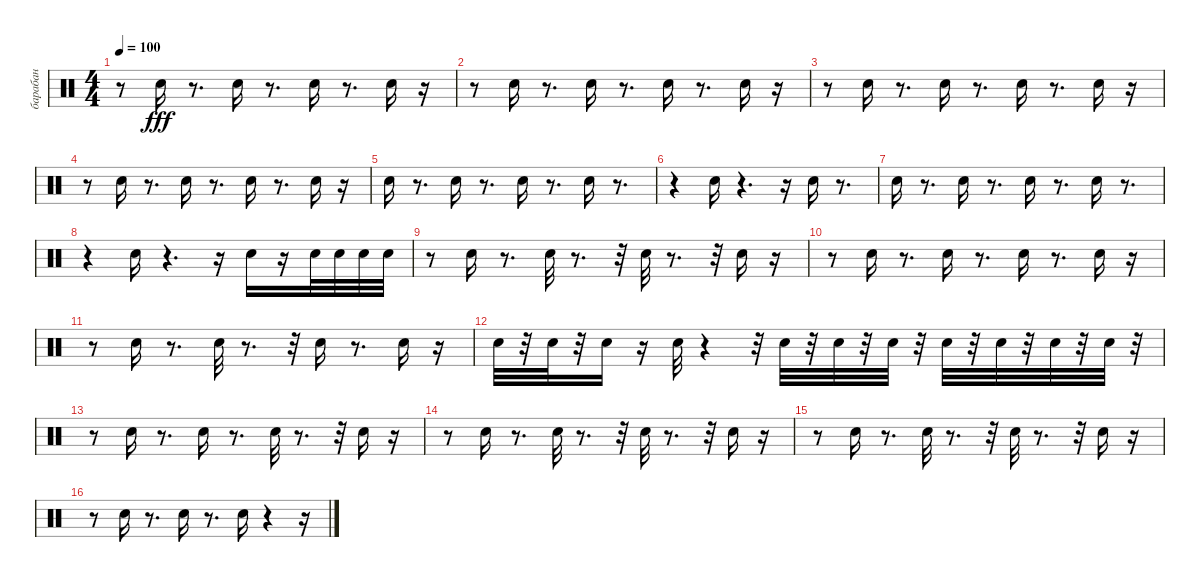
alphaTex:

\track ("барабан" "барабан") {instrument percussion}
\staff {score}
\articulation defaults
\ts (4 4)
\tempo 100
\clef neutral
\ks c
r.8{dy fff} "Snare (hit) 2".16 r.8{d} "Snare (hit) 2".16 r.8{d} "Snare (hit) 2".16 r.8{d} "Snare (hit) 2".16 r.16 |
r.8 "Snare (hit) 2".16 r.8{d} "Snare (hit) 2".16 r.8{d} "Snare (hit) 2".16 r.8{d} "Snare (hit) 2".16 r.16 |
r.8 "Snare (hit) 2".16 r.8{d} "Snare (hit) 2".16 r.8{d} "Snare (hit) 2".16 r.8{d} "Snare (hit) 2".16 r.16 |
r.8 "Snare (hit) 2".16 r.8{d} "Snare (hit) 2".16 r.8{d} "Snare (hit) 2".16 r.8{d} "Snare (hit) 2".16 r.16 |
"Snare (hit) 2".16 r.8{d} "Snare (hit) 2".16 r.8{d} "Snare (hit) 2".16 r.8{d} "Snare (hit) 2".16 r.8{d} |
r.4 "Snare (hit) 2".16 r.4{d} r.16 "Snare (hit) 2".16 r.8{d} |
"Snare (hit) 2".16 r.8{d} "Snare (hit) 2".16 r.8{d} "Snare (hit) 2".16 r.8{d} "Snare (hit) 2".16 r.8{d} |
r.4 "Snare (hit) 2".16 r.4{d} r.16 "Snare (hit) 2".16 r.16 "Snare (hit) 2".32 "Snare (hit) 2".32 "Snare (hit) 2".32 "Snare (hit) 2".32 |
r.8 "Snare (hit) 2".16 r.8{d} "Snare (hit) 2".32 r.8{d} r.32 "Snare (hit) 2".32 r.8{d} r.32 "Snare (hit) 2".16 r.16 |
r.8 "Snare (hit) 2".16 r.8{d} "Snare (hit) 2".16 r.8{d} "Snare (hit) 2".16 r.8{d} "Snare (hit) 2".16 r.16 |
r.8 "Snare (hit) 2".16 r.8{d} "Snare (hit) 2".32 r.8{d} r.32 "Snare (hit) 2".16 r.8{d} "Snare (hit) 2".16 r.16 |
"Snare (hit) 2".32 r.32 "Snare (hit) 2".32 r.32 "Snare (hit) 2".16 r.16 "Snare (hit) 2".32 r.4 r.32 "Snare (hit) 2".32 r.32 "Snare (hit) 2".32 r.32 "Snare (hit) 2".32 r.32 "Snare (hit) 2".32 r.32 "Snare (hit) 2".32 r.32 "Snare (hit) 2".32 r.32 "Snare (hit) 2".32 r.32 |
r.8 "Snare (hit) 2".16 r.8{d} "Snare (hit) 2".16 r.8{d} "Snare (hit) 2".32 r.8{d} r.32 "Snare (hit) 2".16 r.16 |
r.8 "Snare (hit) 2".16 r.8{d} "Snare (hit) 2".32 r.8{d} r.32 "Snare (hit) 2".32 r.8{d} r.32 "Snare (hit) 2".16 r.16 |
r.8 "Snare (hit) 2".16 r.8{d} "Snare (hit) 2".32 r.8{d} r.32 "Snare (hit) 2".32 r.8{d} r.32 "Snare (hit) 2".16 r.16 |
r.8 "Snare (hit) 2".16 r.8{d} "Snare (hit) 2".16 r.8{d} "Snare (hit) 2".16 r.4 r.16
